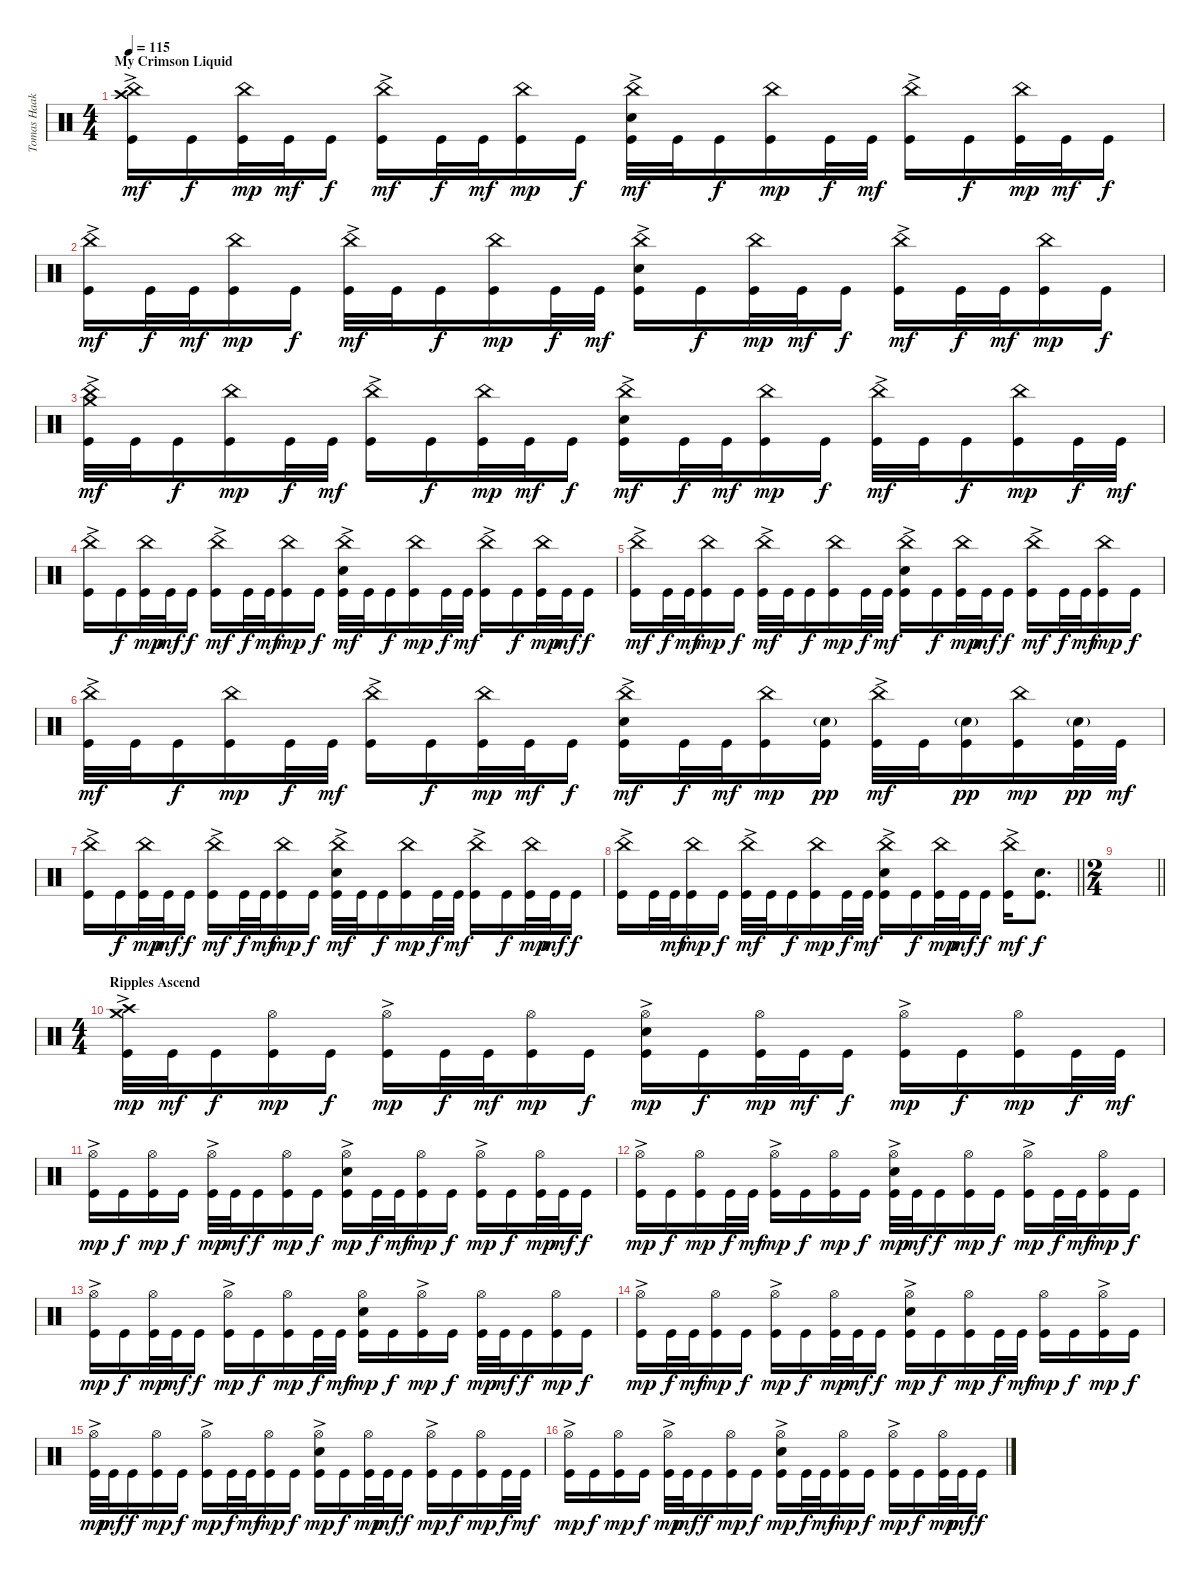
\track ("Tomas Haake (Drums)" "Tomas Haak") {instrument percussion}
\staff {score}
\articulation defaults
\ts (4 4)
\section ("" "My Crimson Liquid")
\tempo 115
\clef neutral
\ks c
("China (hit)"{ac} "Crash high (hit)" "Kick (hit)").16{dy mf} "Kick (hit)".16{dy f} ("China (hit)" "Kick (hit)").32{dy mp} "Kick (hit)".32{dy mf} "Kick (hit)".16{dy f} ("China (hit)"{ac} "Kick (hit)").16{dy mf} "Kick (hit)".32{dy f} "Kick (hit)".32{dy mf} ("China (hit)" "Kick (hit)").16{dy mp} "Kick (hit)".16{dy f} ("China (hit)"{ac} "Electric Snare (hit)" "Kick (hit)").32{dy mf} "Kick (hit)".32 "Kick (hit)".16{dy f} ("China (hit)" "Kick (hit)").16{dy mp} "Kick (hit)".32{dy f} "Kick (hit)".32{dy mf} ("China (hit)"{ac} "Kick (hit)").16 "Kick (hit)".16{dy f} ("China (hit)" "Kick (hit)").32{dy mp} "Kick (hit)".32{dy mf} "Kick (hit)".16{dy f} |
("China (hit)"{ac} "Kick (hit)").16{dy mf} "Kick (hit)".32{dy f} "Kick (hit)".32{dy mf} ("China (hit)" "Kick (hit)").16{dy mp} "Kick (hit)".16{dy f} ("China (hit)"{ac} "Kick (hit)").32{dy mf} "Kick (hit)".32 "Kick (hit)".16{dy f} ("China (hit)" "Kick (hit)").16{dy mp} "Kick (hit)".32{dy f} "Kick (hit)".32{dy mf} ("China (hit)"{ac} "Electric Snare (hit)" "Kick (hit)").16 "Kick (hit)".16{dy f} ("China (hit)" "Kick (hit)").32{dy mp} "Kick (hit)".32{dy mf} "Kick (hit)".16{dy f} ("China (hit)"{ac} "Kick (hit)").16{dy mf} "Kick (hit)".32{dy f} "Kick (hit)".32{dy mf} ("China (hit)" "Kick (hit)").16{dy mp} "Kick (hit)".16{dy f} |
("China (hit)"{ac} "Crash medium (hit)" "Kick (hit)").32{dy mf} "Kick (hit)".32 "Kick (hit)".16{dy f} ("China (hit)" "Kick (hit)").16{dy mp} "Kick (hit)".32{dy f} "Kick (hit)".32{dy mf} ("China (hit)"{ac} "Kick (hit)").16 "Kick (hit)".16{dy f} ("China (hit)" "Kick (hit)").32{dy mp} "Kick (hit)".32{dy mf} "Kick (hit)".16{dy f} ("China (hit)"{ac} "Electric Snare (hit)" "Kick (hit)").16{dy mf} "Kick (hit)".32{dy f} "Kick (hit)".32{dy mf} ("China (hit)" "Kick (hit)").16{dy mp} "Kick (hit)".16{dy f} ("China (hit)"{ac} "Kick (hit)").32{dy mf} "Kick (hit)".32 "Kick (hit)".16{dy f} ("China (hit)" "Kick (hit)").16{dy mp} "Kick (hit)".32{dy f} "Kick (hit)".32{dy mf} |
("China (hit)"{ac} "Kick (hit)").16 "Kick (hit)".16{dy f} ("China (hit)" "Kick (hit)").32{dy mp} "Kick (hit)".32{dy mf} "Kick (hit)".16{dy f} ("China (hit)"{ac} "Kick (hit)").16{dy mf} "Kick (hit)".32{dy f} "Kick (hit)".32{dy mf} ("China (hit)" "Kick (hit)").16{dy mp} "Kick (hit)".16{dy f} ("China (hit)"{ac} "Electric Snare (hit)" "Kick (hit)").32{dy mf} "Kick (hit)".32 "Kick (hit)".16{dy f} ("China (hit)" "Kick (hit)").16{dy mp} "Kick (hit)".32{dy f} "Kick (hit)".32{dy mf} ("China (hit)"{ac} "Kick (hit)").16 "Kick (hit)".16{dy f} ("China (hit)" "Kick (hit)").32{dy mp} "Kick (hit)".32{dy mf} "Kick (hit)".16{dy f} |
("China (hit)"{ac} "Kick (hit)").16{dy mf} "Kick (hit)".32{dy f} "Kick (hit)".32{dy mf} ("China (hit)" "Kick (hit)").16{dy mp} "Kick (hit)".16{dy f} ("China (hit)"{ac} "Kick (hit)").32{dy mf} "Kick (hit)".32 "Kick (hit)".16{dy f} ("China (hit)" "Kick (hit)").16{dy mp} "Kick (hit)".32{dy f} "Kick (hit)".32{dy mf} ("China (hit)"{ac} "Electric Snare (hit)" "Kick (hit)").16 "Kick (hit)".16{dy f} ("China (hit)" "Kick (hit)").32{dy mp} "Kick (hit)".32{dy mf} "Kick (hit)".16{dy f} ("China (hit)"{ac} "Kick (hit)").16{dy mf} "Kick (hit)".32{dy f} "Kick (hit)".32{dy mf} ("China (hit)" "Kick (hit)").16{dy mp} "Kick (hit)".16{dy f} |
("China (hit)"{ac} "Kick (hit)").32{dy mf} "Kick (hit)".32 "Kick (hit)".16{dy f} ("China (hit)" "Kick (hit)").16{dy mp} "Kick (hit)".32{dy f} "Kick (hit)".32{dy mf} ("China (hit)"{ac} "Kick (hit)").16 "Kick (hit)".16{dy f} ("China (hit)" "Kick (hit)").32{dy mp} "Kick (hit)".32{dy mf} "Kick (hit)".16{dy f} ("China (hit)"{ac} "Electric Snare (hit)" "Kick (hit)").16{dy mf} "Kick (hit)".32{dy f} "Kick (hit)".32{dy mf} ("China (hit)" "Kick (hit)").16{dy mp} ("Electric Snare (hit)"{g} "Kick (hit)").16{dy pp} ("China (hit)"{ac} "Kick (hit)").32{dy mf} "Kick (hit)".32 ("Electric Snare (hit)"{g} "Kick (hit)").16{dy pp} ("China (hit)" "Kick (hit)").16{dy mp} ("Electric Snare (hit)"{g} "Kick (hit)").32{dy pp} "Kick (hit)".32{dy mf} |
("China (hit)"{ac} "Kick (hit)").16 "Kick (hit)".16{dy f} ("China (hit)" "Kick (hit)").32{dy mp} "Kick (hit)".32{dy mf} "Kick (hit)".16{dy f} ("China (hit)"{ac} "Kick (hit)").16{dy mf} "Kick (hit)".32{dy f} "Kick (hit)".32{dy mf} ("China (hit)" "Kick (hit)").16{dy mp} "Kick (hit)".16{dy f} ("China (hit)"{ac} "Electric Snare (hit)" "Kick (hit)").32{dy mf} "Kick (hit)".32 "Kick (hit)".16{dy f} ("China (hit)" "Kick (hit)").16{dy mp} "Kick (hit)".32{dy f} "Kick (hit)".32{dy mf} ("China (hit)"{ac} "Kick (hit)").16 "Kick (hit)".16{dy f} ("China (hit)" "Kick (hit)").32{dy mp} "Kick (hit)".32{dy mf} "Kick (hit)".16{dy f} |
\barLineRight lightlight
("China (hit)"{ac} "Kick (hit)").16 "Kick (hit)".32 "Kick (hit)".32{dy mf} ("China (hit)" "Kick (hit)").16{dy mp} "Kick (hit)".16{dy f} ("China (hit)"{ac} "Kick (hit)").32{dy mf} "Kick (hit)".32 "Kick (hit)".16{dy f} ("China (hit)" "Kick (hit)").16{dy mp} "Kick (hit)".32{dy f} "Kick (hit)".32{dy mf} ("China (hit)"{ac} "Electric Snare (hit)" "Kick (hit)").16 "Kick (hit)".16{dy f} ("China (hit)" "Kick (hit)").32{dy mp} "Kick (hit)".32{dy mf} "Kick (hit)".16{dy f} ("China (hit)"{ac} "Kick (hit)").16{dy mf} ("Electric Snare (hit)" "Kick (hit)").8{d dy f} |
\ts (2 4)
\barLineRight lightlight
|
\ts (4 4)
\section ("" "Ripples Ascend")
("Crash high (hit)"{ac} "Crash medium (hit)" "Kick (hit)").32{dy mp} "Kick (hit)".32{dy mf} "Kick (hit)".16{dy f} ("Hi-Hat (open)" "Kick (hit)").16{dy mp} "Kick (hit)".16{dy f} ("Hi-Hat (open)"{ac} "Kick (hit)").16{dy mp} "Kick (hit)".32{dy f} "Kick (hit)".32{dy mf} ("Hi-Hat (open)" "Kick (hit)").16{dy mp} "Kick (hit)".16{dy f} ("Hi-Hat (open)"{ac} "Electric Snare (hit)" "Kick (hit)").16{dy mp} "Kick (hit)".16{dy f} ("Hi-Hat (open)" "Kick (hit)").32{dy mp} "Kick (hit)".32{dy mf} "Kick (hit)".16{dy f} ("Hi-Hat (open)"{ac} "Kick (hit)").16{dy mp} "Kick (hit)".16{dy f} ("Hi-Hat (open)" "Kick (hit)").16{dy mp} "Kick (hit)".32{dy f} "Kick (hit)".32{dy mf} |
("Hi-Hat (open)"{ac} "Kick (hit)").16{dy mp} "Kick (hit)".16{dy f} ("Hi-Hat (open)" "Kick (hit)").16{dy mp} "Kick (hit)".16{dy f} ("Hi-Hat (open)"{ac} "Kick (hit)").32{dy mp} "Kick (hit)".32{dy mf} "Kick (hit)".16{dy f} ("Hi-Hat (open)" "Kick (hit)").16{dy mp} "Kick (hit)".16{dy f} ("Hi-Hat (open)"{ac} "Electric Snare (hit)" "Kick (hit)").16{dy mp} "Kick (hit)".32{dy f} "Kick (hit)".32{dy mf} ("Hi-Hat (open)" "Kick (hit)").16{dy mp} "Kick (hit)".16{dy f} ("Hi-Hat (open)"{ac} "Kick (hit)").16{dy mp} "Kick (hit)".16{dy f} ("Hi-Hat (open)" "Kick (hit)").32{dy mp} "Kick (hit)".32{dy mf} "Kick (hit)".16{dy f} |
("Hi-Hat (open)"{ac} "Kick (hit)").16{dy mp} "Kick (hit)".16{dy f} ("Hi-Hat (open)" "Kick (hit)").16{dy mp} "Kick (hit)".32{dy f} "Kick (hit)".32{dy mf} ("Hi-Hat (open)"{ac} "Kick (hit)").16{dy mp} "Kick (hit)".16{dy f} ("Hi-Hat (open)" "Kick (hit)").16{dy mp} "Kick (hit)".16{dy f} ("Hi-Hat (open)"{ac} "Electric Snare (hit)" "Kick (hit)").32{dy mp} "Kick (hit)".32{dy mf} "Kick (hit)".16{dy f} ("Hi-Hat (open)" "Kick (hit)").16{dy mp} "Kick (hit)".16{dy f} ("Hi-Hat (open)"{ac} "Kick (hit)").16{dy mp} "Kick (hit)".32{dy f} "Kick (hit)".32{dy mf} ("Hi-Hat (open)" "Kick (hit)").16{dy mp} "Kick (hit)".16{dy f} |
("Hi-Hat (open)"{ac} "Kick (hit)").16{dy mp} "Kick (hit)".16{dy f} ("Hi-Hat (open)" "Kick (hit)").32{dy mp} "Kick (hit)".32{dy mf} "Kick (hit)".16{dy f} ("Hi-Hat (open)"{ac} "Kick (hit)").16{dy mp} "Kick (hit)".16{dy f} ("Hi-Hat (open)" "Kick (hit)").16{dy mp} "Kick (hit)".32{dy f} "Kick (hit)".32{dy mf} ("Hi-Hat (open)" "Electric Snare (hit)" "Kick (hit)").16{dy mp} "Kick (hit)".16{dy f} ("Hi-Hat (open)"{ac} "Kick (hit)").16{dy mp} "Kick (hit)".16{dy f} ("Hi-Hat (open)" "Kick (hit)").32{dy mp} "Kick (hit)".32{dy mf} "Kick (hit)".16{dy f} ("Hi-Hat (open)" "Kick (hit)").16{dy mp} "Kick (hit)".16{dy f} |
("Hi-Hat (open)"{ac} "Kick (hit)").16{dy mp} "Kick (hit)".32{dy f} "Kick (hit)".32{dy mf} ("Hi-Hat (open)" "Kick (hit)").16{dy mp} "Kick (hit)".16{dy f} ("Hi-Hat (open)"{ac} "Kick (hit)").16{dy mp} "Kick (hit)".16{dy f} ("Hi-Hat (open)" "Kick (hit)").32{dy mp} "Kick (hit)".32{dy mf} "Kick (hit)".16{dy f} ("Hi-Hat (open)"{ac} "Electric Snare (hit)" "Kick (hit)").16{dy mp} "Kick (hit)".16{dy f} ("Hi-Hat (open)" "Kick (hit)").16{dy mp} "Kick (hit)".32{dy f} "Kick (hit)".32{dy mf} ("Hi-Hat (open)" "Kick (hit)").16{dy mp} "Kick (hit)".16{dy f} ("Hi-Hat (open)"{ac} "Kick (hit)").16{dy mp} "Kick (hit)".16{dy f} |
("Hi-Hat (open)"{ac} "Kick (hit)").32{dy mp} "Kick (hit)".32{dy mf} "Kick (hit)".16{dy f} ("Hi-Hat (open)" "Kick (hit)").16{dy mp} "Kick (hit)".16{dy f} ("Hi-Hat (open)"{ac} "Kick (hit)").16{dy mp} "Kick (hit)".32{dy f} "Kick (hit)".32{dy mf} ("Hi-Hat (open)" "Kick (hit)").16{dy mp} "Kick (hit)".16{dy f} ("Hi-Hat (open)"{ac} "Electric Snare (hit)" "Kick (hit)").16{dy mp} "Kick (hit)".16{dy f} ("Hi-Hat (open)" "Kick (hit)").32{dy mp} "Kick (hit)".32{dy mf} "Kick (hit)".16{dy f} ("Hi-Hat (open)"{ac} "Kick (hit)").16{dy mp} "Kick (hit)".16{dy f} ("Hi-Hat (open)" "Kick (hit)").16{dy mp} "Kick (hit)".32{dy f} "Kick (hit)".32{dy mf} |
("Hi-Hat (open)"{ac} "Kick (hit)").16{dy mp} "Kick (hit)".16{dy f} ("Hi-Hat (open)" "Kick (hit)").16{dy mp} "Kick (hit)".16{dy f} ("Hi-Hat (open)"{ac} "Kick (hit)").32{dy mp} "Kick (hit)".32{dy mf} "Kick (hit)".16{dy f} ("Hi-Hat (open)" "Kick (hit)").16{dy mp} "Kick (hit)".16{dy f} ("Hi-Hat (open)"{ac} "Electric Snare (hit)" "Kick (hit)").16{dy mp} "Kick (hit)".32{dy f} "Kick (hit)".32{dy mf} ("Hi-Hat (open)" "Kick (hit)").16{dy mp} "Kick (hit)".16{dy f} ("Hi-Hat (open)"{ac} "Kick (hit)").16{dy mp} "Kick (hit)".16{dy f} ("Hi-Hat (open)" "Kick (hit)").32{dy mp} "Kick (hit)".32{dy mf} "Kick (hit)".16{dy f}
